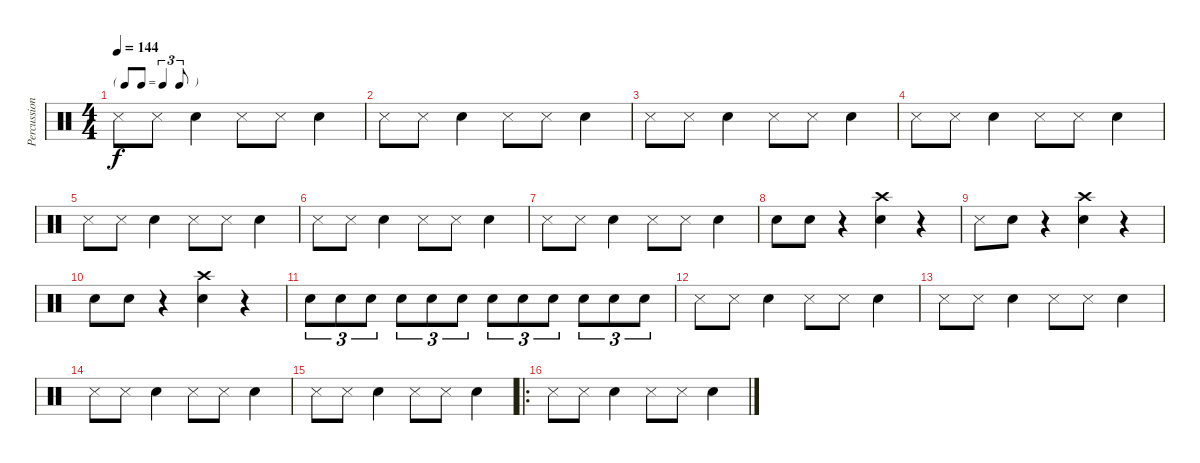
\track ("Percussions" "Percussion") {instrument percussion}
\staff {score}
\articulation defaults
\ts (4 4)
\tf triplet8th
\tempo 144
\clef neutral
\ks c "Snare (side stick) 3".8{dy f} "Snare (side stick) 3".8 "Snare (hit) 2".4 "Snare (side stick) 3".8 "Snare (side stick) 3".8 "Snare (hit) 2".4
|
"Snare (side stick) 3".8 "Snare (side stick) 3".8 "Snare (hit) 2".4 "Snare (side stick) 3".8 "Snare (side stick) 3".8 "Snare (hit) 2".4 |
"Snare (side stick) 3".8 "Snare (side stick) 3".8 "Snare (hit) 2".4 "Snare (side stick) 3".8 "Snare (side stick) 3".8 "Snare (hit) 2".4 |
"Snare (side stick) 3".8 "Snare (side stick) 3".8 "Snare (hit) 2".4 "Snare (side stick) 3".8 "Snare (side stick) 3".8 "Snare (hit) 2".4 |
"Snare (side stick) 3".8 "Snare (side stick) 3".8 "Snare (hit) 2".4 "Snare (side stick) 3".8 "Snare (side stick) 3".8 "Snare (hit) 2".4 |
"Snare (side stick) 3".8 "Snare (side stick) 3".8 "Snare (hit) 2".4 "Snare (side stick) 3".8 "Snare (side stick) 3".8 "Snare (hit) 2".4 |
"Snare (side stick) 3".8 "Snare (side stick) 3".8 "Snare (hit) 2".4 "Snare (side stick) 3".8 "Snare (side stick) 3".8 "Snare (hit) 2".4 |
"Snare (hit) 2".8 "Snare (hit) 2".8 r.4 ("Snare (hit) 2" "Crash high (hit)").4 r.4 |
"Snare (side stick) 3".8 "Snare (hit) 2".8 r.4 ("Snare (hit) 2" "Crash high (hit)").4 r.4 |
"Snare (hit) 2".8 "Snare (hit) 2".8 r.4 ("Snare (hit) 2" "Crash high (hit)").4 r.4 |
"Snare (hit) 2".8{tu (3 2)} "Snare (hit) 2".8{tu (3 2)} "Snare (hit) 2".8{tu (3 2)} "Snare (hit) 2".8{tu (3 2)} "Snare (hit) 2".8{tu (3 2)} "Snare (hit) 2".8{tu (3 2)} "Snare (hit) 2".8{tu (3 2)} "Snare (hit) 2".8{tu (3 2)} "Snare (hit) 2".8{tu (3 2)} "Snare (hit) 2".8{tu (3 2)} "Snare (hit) 2".8{tu (3 2)} "Snare (hit) 2".8{tu (3 2)} |
"Snare (side stick) 3".8 "Snare (side stick) 3".8 "Snare (hit) 2".4 "Snare (side stick) 3".8 "Snare (side stick) 3".8 "Snare (hit) 2".4 |
"Snare (side stick) 3".8 "Snare (side stick) 3".8 "Snare (hit) 2".4 "Snare (side stick) 3".8 "Snare (side stick) 3".8 "Snare (hit) 2".4 |
"Snare (side stick) 3".8 "Snare (side stick) 3".8 "Snare (hit) 2".4 "Snare (side stick) 3".8 "Snare (side stick) 3".8 "Snare (hit) 2".4 |
"Snare (side stick) 3".8 "Snare (side stick) 3".8 "Snare (hit) 2".4 "Snare (side stick) 3".8 "Snare (side stick) 3".8 "Snare (hit) 2".4 |
\ro "Snare (side stick) 3".8 "Snare (side stick) 3".8 "Snare (hit) 2".4 "Snare (side stick) 3".8 "Snare (side stick) 3".8 "Snare (hit) 2".4
